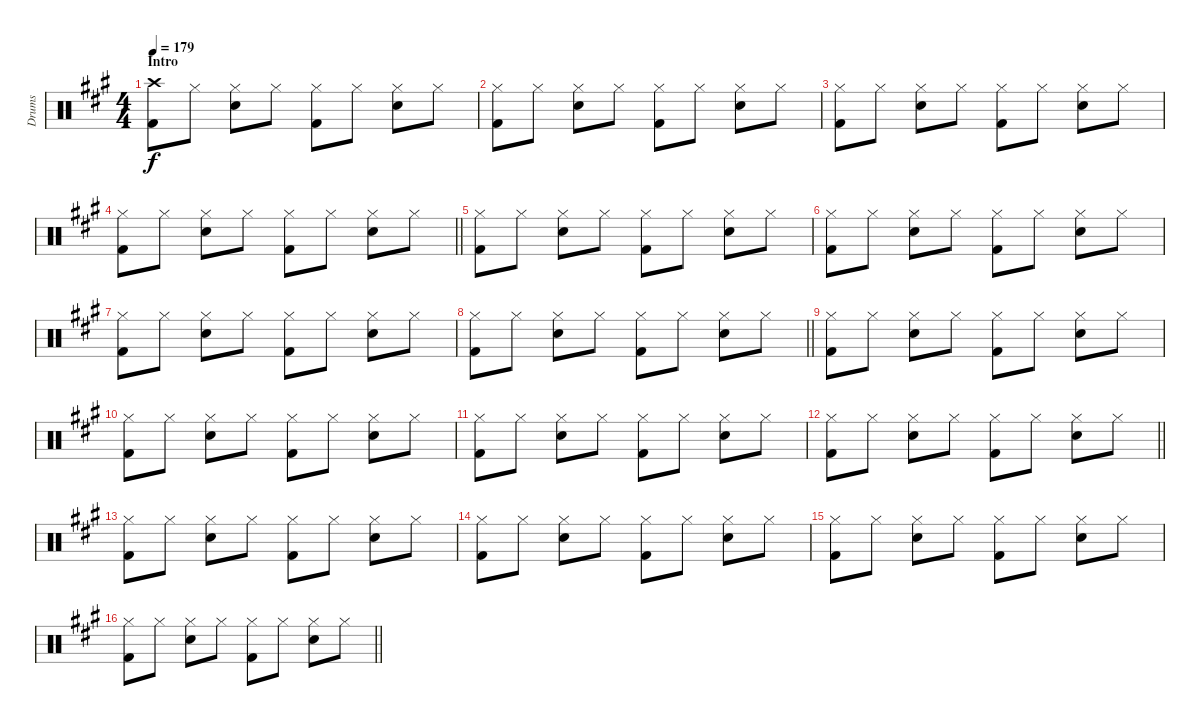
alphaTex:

\track ("Drums" "Drums") {instrument percussion}
\staff {score}
\articulation defaults
\ts (4 4)
\section ("" "Intro")
\tempo 179
\clef neutral
\ks a
("Crash high (hit)" "Kick (hit) 2").8{dy f} "Hi-Hat (closed)".8 ("Hi-Hat (closed)" "Electric Snare (hit)").8 "Hi-Hat (closed)".8 ("Hi-Hat (closed)" "Kick (hit) 2").8 "Hi-Hat (closed)".8 ("Hi-Hat (closed)" "Electric Snare (hit)").8 "Hi-Hat (closed)".8 |
("Hi-Hat (closed)" "Kick (hit) 2").8 "Hi-Hat (closed)".8 ("Hi-Hat (closed)" "Electric Snare (hit)").8 "Hi-Hat (closed)".8 ("Hi-Hat (closed)" "Kick (hit) 2").8 "Hi-Hat (closed)".8 ("Hi-Hat (closed)" "Electric Snare (hit)").8 "Hi-Hat (closed)".8 |
("Hi-Hat (closed)" "Kick (hit) 2").8 "Hi-Hat (closed)".8 ("Hi-Hat (closed)" "Electric Snare (hit)").8 "Hi-Hat (closed)".8 ("Hi-Hat (closed)" "Kick (hit) 2").8 "Hi-Hat (closed)".8 ("Hi-Hat (closed)" "Electric Snare (hit)").8 "Hi-Hat (closed)".8 |
\barLineRight lightlight
("Hi-Hat (closed)" "Kick (hit) 2").8 "Hi-Hat (closed)".8 ("Hi-Hat (closed)" "Electric Snare (hit)").8 "Hi-Hat (closed)".8 ("Hi-Hat (closed)" "Kick (hit) 2").8 "Hi-Hat (closed)".8 ("Hi-Hat (closed)" "Electric Snare (hit)").8 "Hi-Hat (closed)".8 |
("Hi-Hat (closed)" "Kick (hit) 2").8 "Hi-Hat (closed)".8 ("Hi-Hat (closed)" "Electric Snare (hit)").8 "Hi-Hat (closed)".8 ("Hi-Hat (closed)" "Kick (hit) 2").8 "Hi-Hat (closed)".8 ("Hi-Hat (closed)" "Electric Snare (hit)").8 "Hi-Hat (closed)".8 |
("Hi-Hat (closed)" "Kick (hit) 2").8 "Hi-Hat (closed)".8 ("Hi-Hat (closed)" "Electric Snare (hit)").8 "Hi-Hat (closed)".8 ("Hi-Hat (closed)" "Kick (hit) 2").8 "Hi-Hat (closed)".8 ("Hi-Hat (closed)" "Electric Snare (hit)").8 "Hi-Hat (closed)".8 |
("Hi-Hat (closed)" "Kick (hit) 2").8 "Hi-Hat (closed)".8 ("Hi-Hat (closed)" "Electric Snare (hit)").8 "Hi-Hat (closed)".8 ("Hi-Hat (closed)" "Kick (hit) 2").8 "Hi-Hat (closed)".8 ("Hi-Hat (closed)" "Electric Snare (hit)").8 "Hi-Hat (closed)".8 |
\barLineRight lightlight
("Hi-Hat (closed)" "Kick (hit) 2").8 "Hi-Hat (closed)".8 ("Hi-Hat (closed)" "Electric Snare (hit)").8 "Hi-Hat (closed)".8 ("Hi-Hat (closed)" "Kick (hit) 2").8 "Hi-Hat (closed)".8 ("Hi-Hat (closed)" "Electric Snare (hit)").8 "Hi-Hat (closed)".8 |
("Hi-Hat (closed)" "Kick (hit) 2").8 "Hi-Hat (closed)".8 ("Hi-Hat (closed)" "Electric Snare (hit)").8 "Hi-Hat (closed)".8 ("Hi-Hat (closed)" "Kick (hit) 2").8 "Hi-Hat (closed)".8 ("Hi-Hat (closed)" "Electric Snare (hit)").8 "Hi-Hat (closed)".8 |
("Hi-Hat (closed)" "Kick (hit) 2").8 "Hi-Hat (closed)".8 ("Hi-Hat (closed)" "Electric Snare (hit)").8 "Hi-Hat (closed)".8 ("Hi-Hat (closed)" "Kick (hit) 2").8 "Hi-Hat (closed)".8 ("Hi-Hat (closed)" "Electric Snare (hit)").8 "Hi-Hat (closed)".8 |
("Hi-Hat (closed)" "Kick (hit) 2").8 "Hi-Hat (closed)".8 ("Hi-Hat (closed)" "Electric Snare (hit)").8 "Hi-Hat (closed)".8 ("Hi-Hat (closed)" "Kick (hit) 2").8 "Hi-Hat (closed)".8 ("Hi-Hat (closed)" "Electric Snare (hit)").8 "Hi-Hat (closed)".8 |
\barLineRight lightlight
("Hi-Hat (closed)" "Kick (hit) 2").8 "Hi-Hat (closed)".8 ("Hi-Hat (closed)" "Electric Snare (hit)").8 "Hi-Hat (closed)".8 ("Hi-Hat (closed)" "Kick (hit) 2").8 "Hi-Hat (closed)".8 ("Hi-Hat (closed)" "Electric Snare (hit)").8 "Hi-Hat (closed)".8 |
("Hi-Hat (closed)" "Kick (hit) 2").8 "Hi-Hat (closed)".8 ("Hi-Hat (closed)" "Electric Snare (hit)").8 "Hi-Hat (closed)".8 ("Hi-Hat (closed)" "Kick (hit) 2").8 "Hi-Hat (closed)".8 ("Hi-Hat (closed)" "Electric Snare (hit)").8 "Hi-Hat (closed)".8 |
("Hi-Hat (closed)" "Kick (hit) 2").8 "Hi-Hat (closed)".8 ("Hi-Hat (closed)" "Electric Snare (hit)").8 "Hi-Hat (closed)".8 ("Hi-Hat (closed)" "Kick (hit) 2").8 "Hi-Hat (closed)".8 ("Hi-Hat (closed)" "Electric Snare (hit)").8 "Hi-Hat (closed)".8 |
("Hi-Hat (closed)" "Kick (hit) 2").8 "Hi-Hat (closed)".8 ("Hi-Hat (closed)" "Electric Snare (hit)").8 "Hi-Hat (closed)".8 ("Hi-Hat (closed)" "Kick (hit) 2").8 "Hi-Hat (closed)".8 ("Hi-Hat (closed)" "Electric Snare (hit)").8 "Hi-Hat (closed)".8 |
\barLineRight lightlight
("Hi-Hat (closed)" "Kick (hit) 2").8 "Hi-Hat (closed)".8 ("Hi-Hat (closed)" "Electric Snare (hit)").8 "Hi-Hat (closed)".8 ("Hi-Hat (closed)" "Kick (hit) 2").8 "Hi-Hat (closed)".8 ("Hi-Hat (closed)" "Electric Snare (hit)").8 "Hi-Hat (closed)".8
